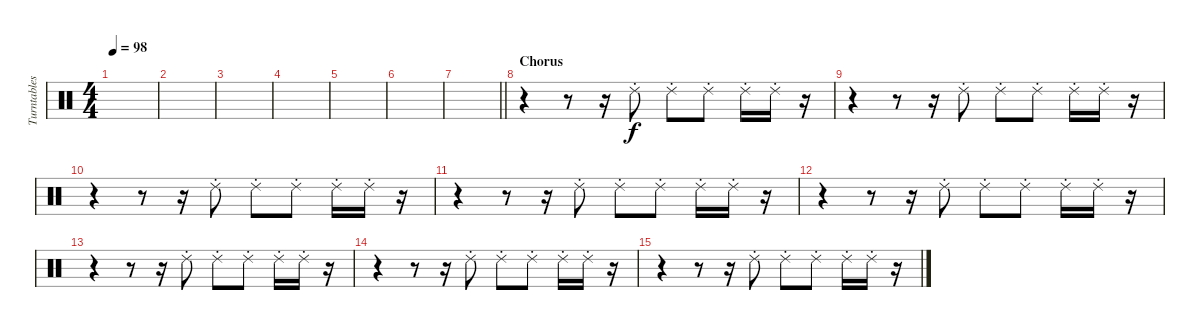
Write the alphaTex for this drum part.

\track ("Turntables - Joe Hahn" "Turntables") {instrument percussion}
\staff {score}
\articulation defaults
\ts (4 4)
\tempo 98
\clef neutral
\ks c
|
|
|
|
|
|
\barLineRight lightlight
|
\section ("" "Chorus")
r.4 r.8 r.16 "Ride (choke) 2".8 "Ride (choke) 2".8 "Ride (choke) 2".8 "Ride (choke) 2".16 "Ride (choke) 2".16 r.16 |
r.4 r.8 r.16 "Ride (choke) 2".8 "Ride (choke) 2".8 "Ride (choke) 2".8 "Ride (choke) 2".16 "Ride (choke) 2".16 r.16 |
r.4 r.8 r.16 "Ride (choke) 2".8 "Ride (choke) 2".8 "Ride (choke) 2".8 "Ride (choke) 2".16 "Ride (choke) 2".16 r.16 |
r.4 r.8 r.16 "Ride (choke) 2".8 "Ride (choke) 2".8 "Ride (choke) 2".8 "Ride (choke) 2".16 "Ride (choke) 2".16 r.16 |
r.4 r.8 r.16 "Ride (choke) 2".8 "Ride (choke) 2".8 "Ride (choke) 2".8 "Ride (choke) 2".16 "Ride (choke) 2".16 r.16 |
r.4 r.8 r.16 "Ride (choke) 2".8 "Ride (choke) 2".8 "Ride (choke) 2".8 "Ride (choke) 2".16 "Ride (choke) 2".16 r.16 |
r.4 r.8 r.16 "Ride (choke) 2".8 "Ride (choke) 2".8 "Ride (choke) 2".8 "Ride (choke) 2".16 "Ride (choke) 2".16 r.16 |
r.4 r.8 r.16 "Ride (choke) 2".8 "Ride (choke) 2".8 "Ride (choke) 2".8 "Ride (choke) 2".16 "Ride (choke) 2".16 r.16
